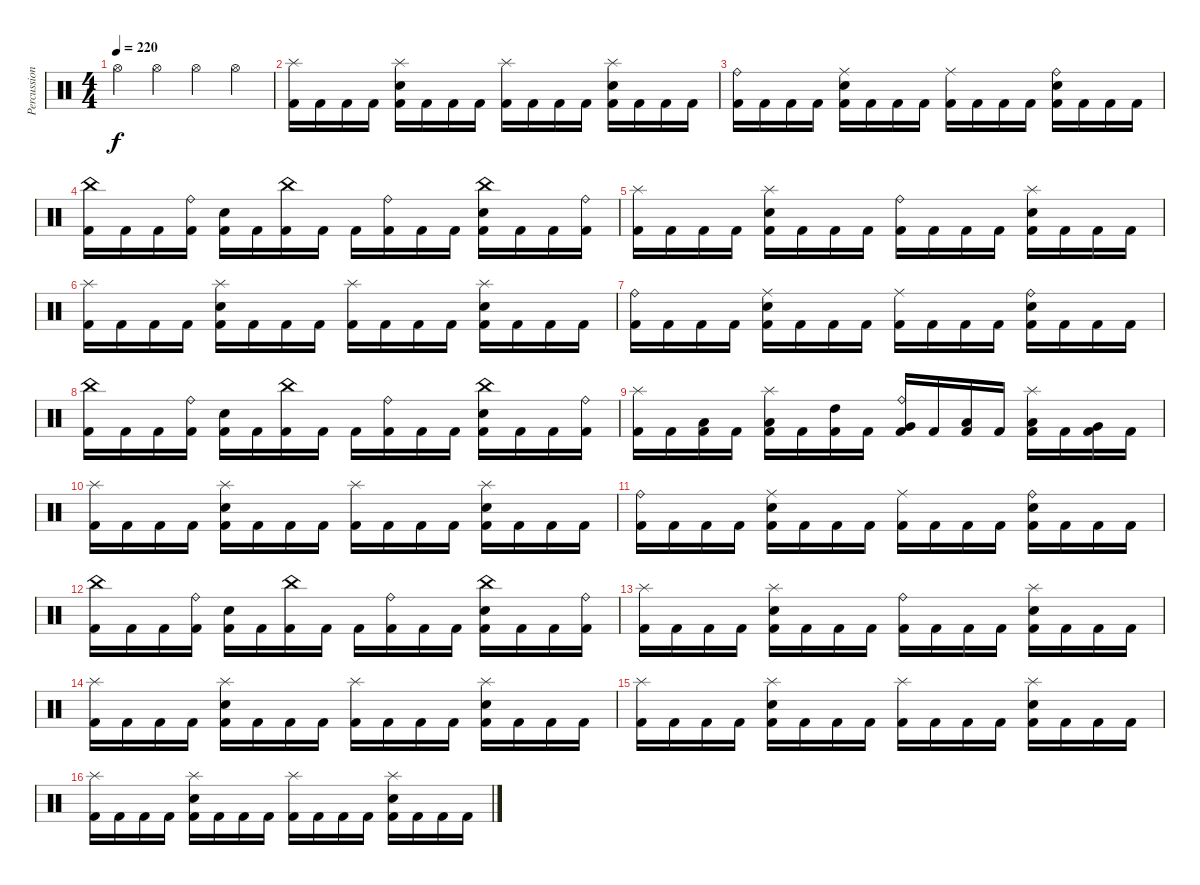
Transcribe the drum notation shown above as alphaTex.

\track ("Percussion" "Percussion") {instrument percussion}
\staff {score}
\articulation defaults
\ts (4 4)
\tempo 220
\clef neutral
\ks c "Hi-Hat (open)".4{dy f} "Hi-Hat (open)".4 "Hi-Hat (open)".4 "Hi-Hat (open)".4
|
("Splash (hit)" "Kick (hit) 2").16 "Kick (hit) 2".16 "Kick (hit) 2".16 "Kick (hit) 2".16 ("Splash (hit)" "Electric Snare (hit)" "Kick (hit) 2").16 "Kick (hit) 2".16 "Kick (hit) 2".16 "Kick (hit) 2".16 ("Splash (hit)" "Kick (hit) 2").16 "Kick (hit) 2".16 "Kick (hit) 2".16 "Kick (hit) 2".16 ("Splash (hit)" "Electric Snare (hit)" "Kick (hit) 2").16 "Kick (hit) 2".16 "Kick (hit) 2".16 "Kick (hit) 2".16 |
("Ride (bell)" "Kick (hit) 2").16 "Kick (hit) 2".16 "Kick (hit) 2".16 "Kick (hit) 2".16 ("Ride (middle)" "Electric Snare (hit)" "Kick (hit) 2").16 "Kick (hit) 2".16 "Kick (hit) 2".16 "Kick (hit) 2".16 ("Ride (middle)" "Kick (hit) 2").16 "Kick (hit) 2".16 "Kick (hit) 2".16 "Kick (hit) 2".16 ("Ride (bell)" "Electric Snare (hit)" "Kick (hit) 2").16 "Kick (hit) 2".16 "Kick (hit) 2".16 "Kick (hit) 2".16 |
("China (hit)" "Kick (hit) 2").16 "Kick (hit) 2".16 "Kick (hit) 2".16 ("Ride (bell)" "Kick (hit) 2").16 ("Electric Snare (hit)" "Kick (hit) 2").16 "Kick (hit) 2".16 ("China (hit)" "Kick (hit) 2").16 "Kick (hit) 2".16 "Kick (hit) 2".16 ("Ride (bell)" "Kick (hit) 2").16 "Kick (hit) 2".16 "Kick (hit) 2".16 ("China (hit)" "Electric Snare (hit)" "Kick (hit) 2").16 "Kick (hit) 2".16 "Kick (hit) 2".16 ("Ride (bell)" "Kick (hit) 2").16 |
("Splash (hit)" "Kick (hit) 2").16 "Kick (hit) 2".16 "Kick (hit) 2".16 "Kick (hit) 2".16 ("Splash (hit)" "Electric Snare (hit)" "Kick (hit) 2").16 "Kick (hit) 2".16 "Kick (hit) 2".16 "Kick (hit) 2".16 ("Ride (bell)" "Kick (hit) 2").16 "Kick (hit) 2".16 "Kick (hit) 2".16 "Kick (hit) 2".16 ("Splash (hit)" "Electric Snare (hit)" "Kick (hit) 2").16 "Kick (hit) 2".16 "Kick (hit) 2".16 "Kick (hit) 2".16 |
("Splash (hit)" "Kick (hit) 2").16 "Kick (hit) 2".16 "Kick (hit) 2".16 "Kick (hit) 2".16 ("Splash (hit)" "Electric Snare (hit)" "Kick (hit) 2").16 "Kick (hit) 2".16 "Kick (hit) 2".16 "Kick (hit) 2".16 ("Splash (hit)" "Kick (hit) 2").16 "Kick (hit) 2".16 "Kick (hit) 2".16 "Kick (hit) 2".16 ("Splash (hit)" "Electric Snare (hit)" "Kick (hit) 2").16 "Kick (hit) 2".16 "Kick (hit) 2".16 "Kick (hit) 2".16 |
("Ride (bell)" "Kick (hit) 2").16 "Kick (hit) 2".16 "Kick (hit) 2".16 "Kick (hit) 2".16 ("Ride (middle)" "Electric Snare (hit)" "Kick (hit) 2").16 "Kick (hit) 2".16 "Kick (hit) 2".16 "Kick (hit) 2".16 ("Ride (middle)" "Kick (hit) 2").16 "Kick (hit) 2".16 "Kick (hit) 2".16 "Kick (hit) 2".16 ("Ride (bell)" "Electric Snare (hit)" "Kick (hit) 2").16 "Kick (hit) 2".16 "Kick (hit) 2".16 "Kick (hit) 2".16 |
("China (hit)" "Kick (hit) 2").16 "Kick (hit) 2".16 "Kick (hit) 2".16 ("Ride (bell)" "Kick (hit) 2").16 ("Electric Snare (hit)" "Kick (hit) 2").16 "Kick (hit) 2".16 ("China (hit)" "Kick (hit) 2").16 "Kick (hit) 2".16 "Kick (hit) 2".16 ("Ride (bell)" "Kick (hit) 2").16 "Kick (hit) 2".16 "Kick (hit) 2".16 ("China (hit)" "Electric Snare (hit)" "Kick (hit) 2").16 "Kick (hit) 2".16 "Kick (hit) 2".16 ("Ride (bell)" "Kick (hit) 2").16 |
("Splash (hit)" "Kick (hit) 2").16 "Kick (hit) 2".16 ("Low Tom (hit)" "Kick (hit) 2").16 "Kick (hit) 2".16 ("Splash (hit)" "Low Tom (hit)" "Kick (hit) 2").16 "Kick (hit) 2".16 ("High Tom (hit)" "Kick (hit) 2").16 "Kick (hit) 2".16 ("Ride (bell)" "Very Low Tom (hit)" "Kick (hit) 2").16 "Kick (hit) 2".16 ("Low Tom (hit)" "Kick (hit) 2").16 "Kick (hit) 2".16 ("Splash (hit)" "Low Tom (hit)" "Kick (hit) 2").16 "Kick (hit) 2".16 ("Very Low Tom (hit)" "Kick (hit) 2").16 "Kick (hit) 2".16 |
("Splash (hit)" "Kick (hit) 2").16 "Kick (hit) 2".16 "Kick (hit) 2".16 "Kick (hit) 2".16 ("Splash (hit)" "Electric Snare (hit)" "Kick (hit) 2").16 "Kick (hit) 2".16 "Kick (hit) 2".16 "Kick (hit) 2".16 ("Splash (hit)" "Kick (hit) 2").16 "Kick (hit) 2".16 "Kick (hit) 2".16 "Kick (hit) 2".16 ("Splash (hit)" "Electric Snare (hit)" "Kick (hit) 2").16 "Kick (hit) 2".16 "Kick (hit) 2".16 "Kick (hit) 2".16 |
("Ride (bell)" "Kick (hit) 2").16 "Kick (hit) 2".16 "Kick (hit) 2".16 "Kick (hit) 2".16 ("Ride (middle)" "Electric Snare (hit)" "Kick (hit) 2").16 "Kick (hit) 2".16 "Kick (hit) 2".16 "Kick (hit) 2".16 ("Ride (middle)" "Kick (hit) 2").16 "Kick (hit) 2".16 "Kick (hit) 2".16 "Kick (hit) 2".16 ("Ride (bell)" "Electric Snare (hit)" "Kick (hit) 2").16 "Kick (hit) 2".16 "Kick (hit) 2".16 "Kick (hit) 2".16 |
("China (hit)" "Kick (hit) 2").16 "Kick (hit) 2".16 "Kick (hit) 2".16 ("Ride (bell)" "Kick (hit) 2").16 ("Electric Snare (hit)" "Kick (hit) 2").16 "Kick (hit) 2".16 ("China (hit)" "Kick (hit) 2").16 "Kick (hit) 2".16 "Kick (hit) 2".16 ("Ride (bell)" "Kick (hit) 2").16 "Kick (hit) 2".16 "Kick (hit) 2".16 ("China (hit)" "Electric Snare (hit)" "Kick (hit) 2").16 "Kick (hit) 2".16 "Kick (hit) 2".16 ("Ride (bell)" "Kick (hit) 2").16 |
("Splash (hit)" "Kick (hit) 2").16 "Kick (hit) 2".16 "Kick (hit) 2".16 "Kick (hit) 2".16 ("Splash (hit)" "Electric Snare (hit)" "Kick (hit) 2").16 "Kick (hit) 2".16 "Kick (hit) 2".16 "Kick (hit) 2".16 ("Ride (bell)" "Kick (hit) 2").16 "Kick (hit) 2".16 "Kick (hit) 2".16 "Kick (hit) 2".16 ("Splash (hit)" "Electric Snare (hit)" "Kick (hit) 2").16 "Kick (hit) 2".16 "Kick (hit) 2".16 "Kick (hit) 2".16 |
("Splash (hit)" "Kick (hit) 2").16 "Kick (hit) 2".16 "Kick (hit) 2".16 "Kick (hit) 2".16 ("Splash (hit)" "Electric Snare (hit)" "Kick (hit) 2").16 "Kick (hit) 2".16 "Kick (hit) 2".16 "Kick (hit) 2".16 ("Splash (hit)" "Kick (hit) 2").16 "Kick (hit) 2".16 "Kick (hit) 2".16 "Kick (hit) 2".16 ("Splash (hit)" "Electric Snare (hit)" "Kick (hit) 2").16 "Kick (hit) 2".16 "Kick (hit) 2".16 "Kick (hit) 2".16 |
("Splash (hit)" "Kick (hit) 2").16 "Kick (hit) 2".16 "Kick (hit) 2".16 "Kick (hit) 2".16 ("Splash (hit)" "Electric Snare (hit)" "Kick (hit) 2").16 "Kick (hit) 2".16 "Kick (hit) 2".16 "Kick (hit) 2".16 ("Splash (hit)" "Kick (hit) 2").16 "Kick (hit) 2".16 "Kick (hit) 2".16 "Kick (hit) 2".16 ("Splash (hit)" "Electric Snare (hit)" "Kick (hit) 2").16 "Kick (hit) 2".16 "Kick (hit) 2".16 "Kick (hit) 2".16 |
("Splash (hit)" "Kick (hit) 2").16 "Kick (hit) 2".16 "Kick (hit) 2".16 "Kick (hit) 2".16 ("Splash (hit)" "Electric Snare (hit)" "Kick (hit) 2").16 "Kick (hit) 2".16 "Kick (hit) 2".16 "Kick (hit) 2".16 ("Splash (hit)" "Kick (hit) 2").16 "Kick (hit) 2".16 "Kick (hit) 2".16 "Kick (hit) 2".16 ("Splash (hit)" "Electric Snare (hit)" "Kick (hit) 2").16 "Kick (hit) 2".16 "Kick (hit) 2".16 "Kick (hit) 2".16
